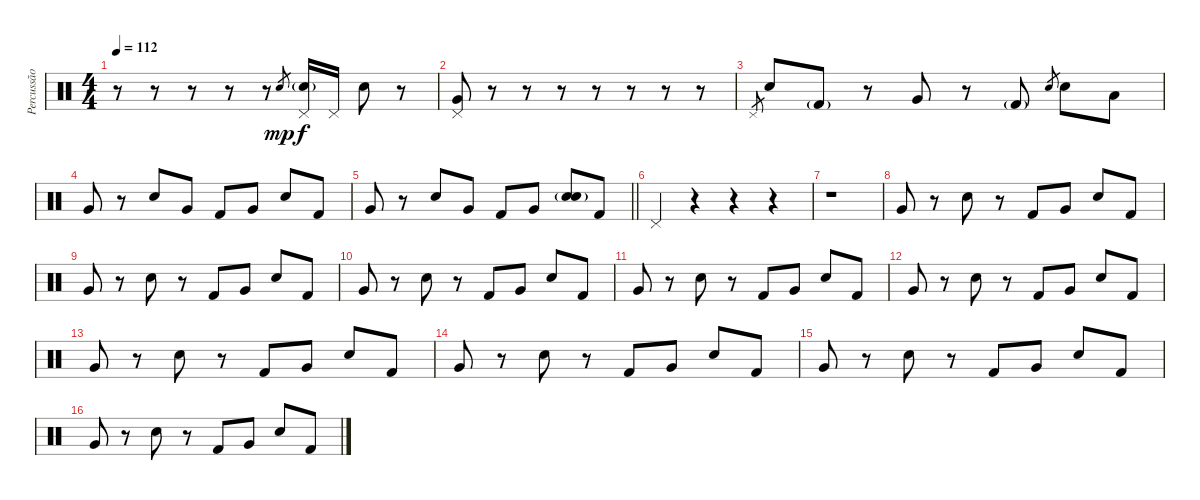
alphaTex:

\track ("Percussão" "Percussão") {instrument percussion}
\staff {score}
\articulation defaults
\ts (4 4)
\tempo 112
\clef neutral
\ks c
r.8{dy f volume 12} r.8 r.8 r.8 r.8 "Electric Snare (hit)".8{gr dy mp} ("Pedal Hi-Hat (hit)" "Electric Snare (hit)"{g}).16{dy f} "Pedal Hi-Hat (hit)".16 "Electric Snare (hit)".8 r.8 |
("Pedal Hi-Hat (hit)" "Very Low Tom (hit)").8 r.8 r.8 r.8 r.8 r.8 r.8 r.8 |
"Pedal Hi-Hat (hit)".8{gr} "Electric Snare (hit)".8 "Kick (hit) 2"{g}.8 r.8 "Very Low Tom (hit)".8 r.8 "Kick (hit) 2"{g}.8 "Electric Snare (hit)".8{gr} "Electric Snare (hit)".8 "Low Floor Tom (hit)".8 |
"Very Low Tom (hit)".8 r.8 "Electric Snare (hit)".8 "Very Low Tom (hit)".8 "Kick (hit) 2".8 "Very Low Tom (hit)".8 "Electric Snare (hit)".8 "Kick (hit) 2".8 |
\barLineRight lightlight "Very Low Tom (hit)".8
r.8 "Electric Snare (hit)".8 "Very Low Tom (hit)".8 "Kick (hit) 2".8 "Very Low Tom (hit)".8 ("Electric Snare (hit)"{g} "Snare (hit) 2").8 "Kick (hit) 2".8 |
"Pedal Hi-Hat (hit)".4 r.4 r.4 r.4 |
r.1 |
"Very Low Tom (hit)".8{volume 10} r.8 "Electric Snare (hit)".8 r.8 "Kick (hit) 2".8 "Very Low Tom (hit)".8 "Electric Snare (hit)".8 "Kick (hit) 2".8 |
"Very Low Tom (hit)".8 r.8 "Electric Snare (hit)".8 r.8 "Kick (hit) 2".8 "Very Low Tom (hit)".8 "Electric Snare (hit)".8 "Kick (hit) 2".8 |
"Very Low Tom (hit)".8 r.8 "Electric Snare (hit)".8 r.8 "Kick (hit) 2".8 "Very Low Tom (hit)".8 "Electric Snare (hit)".8 "Kick (hit) 2".8 |
"Very Low Tom (hit)".8 r.8 "Electric Snare (hit)".8 r.8 "Kick (hit) 2".8 "Very Low Tom (hit)".8 "Electric Snare (hit)".8 "Kick (hit) 2".8 |
"Very Low Tom (hit)".8 r.8 "Electric Snare (hit)".8 r.8 "Kick (hit) 2".8 "Very Low Tom (hit)".8 "Electric Snare (hit)".8 "Kick (hit) 2".8 |
"Very Low Tom (hit)".8 r.8 "Electric Snare (hit)".8 r.8 "Kick (hit) 2".8 "Very Low Tom (hit)".8 "Electric Snare (hit)".8 "Kick (hit) 2".8 |
"Very Low Tom (hit)".8 r.8 "Electric Snare (hit)".8 r.8 "Kick (hit) 2".8 "Very Low Tom (hit)".8 "Electric Snare (hit)".8 "Kick (hit) 2".8 |
"Very Low Tom (hit)".8 r.8 "Electric Snare (hit)".8 r.8 "Kick (hit) 2".8 "Very Low Tom (hit)".8 "Electric Snare (hit)".8 "Kick (hit) 2".8 |
"Very Low Tom (hit)".8 r.8 "Electric Snare (hit)".8 r.8 "Kick (hit) 2".8 "Very Low Tom (hit)".8 "Electric Snare (hit)".8 "Kick (hit) 2".8
